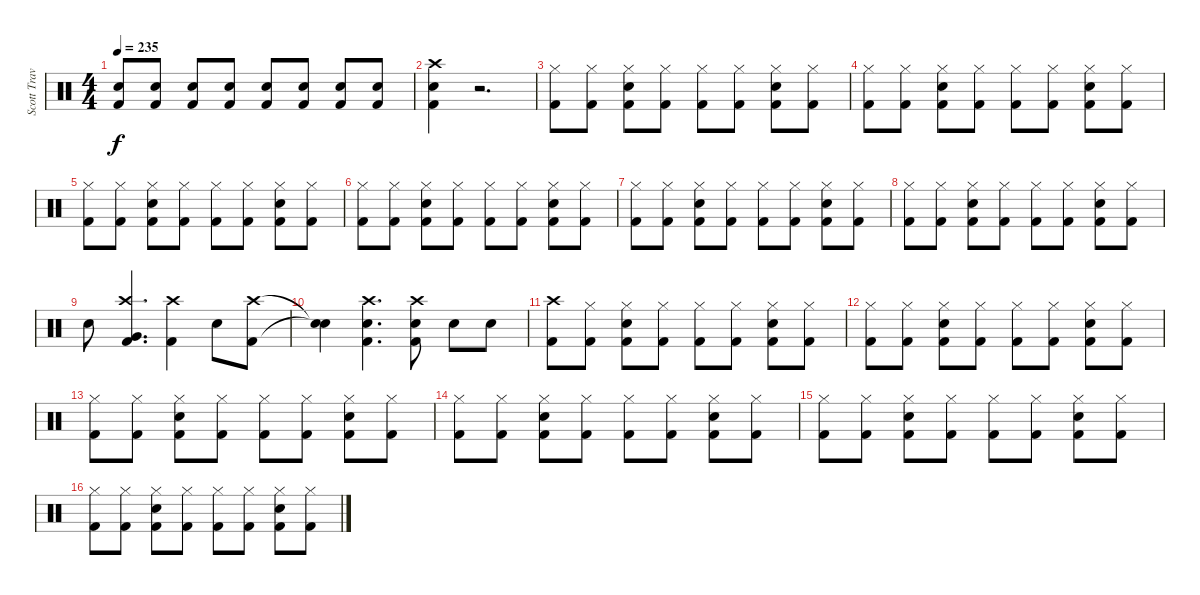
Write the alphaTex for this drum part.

\track ("Scott Travis" "Scott Trav") {instrument percussion}
\staff {score}
\articulation defaults
\ts (4 4)
\tempo 235
\clef neutral
\ks c
("Snare (hit) 2" "Kick (hit) 2").8{dy f} ("Snare (hit) 2" "Kick (hit) 2").8 ("Snare (hit) 2" "Kick (hit) 2").8 ("Snare (hit) 2" "Kick (hit) 2").8 ("Snare (hit) 2" "Kick (hit) 2").8 ("Snare (hit) 2" "Kick (hit) 2").8 ("Snare (hit) 2" "Kick (hit) 2").8 ("Snare (hit) 2" "Kick (hit) 2").8 |
("Kick (hit) 2" "Snare (hit) 2" "Crash high (hit)").4 r.2{d} |
("Kick (hit) 2" "Hi-Hat (closed)").8 ("Kick (hit) 2" "Hi-Hat (closed)").8 ("Kick (hit) 2" "Snare (hit) 2" "Hi-Hat (closed)").8 ("Kick (hit) 2" "Hi-Hat (closed)").8 ("Kick (hit) 2" "Hi-Hat (closed)").8 ("Kick (hit) 2" "Hi-Hat (closed)").8 ("Kick (hit) 2" "Hi-Hat (closed)" "Snare (hit) 2").8 ("Kick (hit) 2" "Hi-Hat (closed)").8 |
("Kick (hit) 2" "Hi-Hat (closed)").8 ("Kick (hit) 2" "Hi-Hat (closed)").8 ("Kick (hit) 2" "Snare (hit) 2" "Hi-Hat (closed)").8 ("Kick (hit) 2" "Hi-Hat (closed)").8 ("Kick (hit) 2" "Hi-Hat (closed)").8 ("Kick (hit) 2" "Hi-Hat (closed)").8 ("Kick (hit) 2" "Hi-Hat (closed)" "Snare (hit) 2").8 ("Kick (hit) 2" "Hi-Hat (closed)").8 |
("Kick (hit) 2" "Hi-Hat (closed)").8 ("Kick (hit) 2" "Hi-Hat (closed)").8 ("Kick (hit) 2" "Snare (hit) 2" "Hi-Hat (closed)").8 ("Kick (hit) 2" "Hi-Hat (closed)").8 ("Kick (hit) 2" "Hi-Hat (closed)").8 ("Kick (hit) 2" "Hi-Hat (closed)").8 ("Kick (hit) 2" "Hi-Hat (closed)" "Snare (hit) 2").8 ("Kick (hit) 2" "Hi-Hat (closed)").8 |
("Kick (hit) 2" "Hi-Hat (closed)").8 ("Kick (hit) 2" "Hi-Hat (closed)").8 ("Kick (hit) 2" "Snare (hit) 2" "Hi-Hat (closed)").8 ("Kick (hit) 2" "Hi-Hat (closed)").8 ("Kick (hit) 2" "Hi-Hat (closed)").8 ("Kick (hit) 2" "Hi-Hat (closed)").8 ("Kick (hit) 2" "Hi-Hat (closed)" "Snare (hit) 2").8 ("Kick (hit) 2" "Hi-Hat (closed)").8 |
("Kick (hit) 2" "Hi-Hat (closed)").8 ("Kick (hit) 2" "Hi-Hat (closed)").8 ("Kick (hit) 2" "Snare (hit) 2" "Hi-Hat (closed)").8 ("Kick (hit) 2" "Hi-Hat (closed)").8 ("Kick (hit) 2" "Hi-Hat (closed)").8 ("Kick (hit) 2" "Hi-Hat (closed)").8 ("Kick (hit) 2" "Hi-Hat (closed)" "Snare (hit) 2").8 ("Kick (hit) 2" "Hi-Hat (closed)").8 |
("Kick (hit) 2" "Hi-Hat (closed)").8 ("Kick (hit) 2" "Hi-Hat (closed)").8 ("Kick (hit) 2" "Snare (hit) 2" "Hi-Hat (closed)").8 ("Kick (hit) 2" "Hi-Hat (closed)").8 ("Kick (hit) 2" "Hi-Hat (closed)").8 ("Kick (hit) 2" "Hi-Hat (closed)").8 ("Kick (hit) 2" "Hi-Hat (closed)" "Snare (hit) 2").8 ("Kick (hit) 2" "Hi-Hat (closed)").8 |
"Snare (hit) 2".8 ("Kick (hit) 2" "Crash high (hit)" "Very Low Tom (hit)").4{d} ("Kick (hit) 2" "Crash high (hit)").4 "Snare (hit) 2".8 ("Kick (hit) 2" "Crash high (hit)").8 |
("Snare (hit)"{t} "Snare (hit)"{t}).4 ("Kick (hit) 2" "Crash high (hit)" "Snare (hit) 2").4{d} ("Kick (hit) 2" "Crash high (hit)" "Snare (hit) 2").8 "Snare (hit) 2".8 "Snare (hit) 2".8 |
("Kick (hit) 2" "Crash high (hit)").8 ("Kick (hit) 2" "Hi-Hat (closed)").8 ("Kick (hit) 2" "Snare (hit) 2" "Hi-Hat (closed)").8 ("Kick (hit) 2" "Hi-Hat (closed)").8 ("Kick (hit) 2" "Hi-Hat (closed)").8 ("Kick (hit) 2" "Hi-Hat (closed)").8 ("Kick (hit) 2" "Hi-Hat (closed)" "Snare (hit) 2").8 ("Kick (hit) 2" "Hi-Hat (closed)").8 |
("Kick (hit) 2" "Hi-Hat (closed)").8 ("Kick (hit) 2" "Hi-Hat (closed)").8 ("Kick (hit) 2" "Snare (hit) 2" "Hi-Hat (closed)").8 ("Kick (hit) 2" "Hi-Hat (closed)").8 ("Kick (hit) 2" "Hi-Hat (closed)").8 ("Kick (hit) 2" "Hi-Hat (closed)").8 ("Kick (hit) 2" "Hi-Hat (closed)" "Snare (hit) 2").8 ("Kick (hit) 2" "Hi-Hat (closed)").8 |
("Kick (hit) 2" "Hi-Hat (closed)").8 ("Kick (hit) 2" "Hi-Hat (closed)").8 ("Kick (hit) 2" "Snare (hit) 2" "Hi-Hat (closed)").8 ("Kick (hit) 2" "Hi-Hat (closed)").8 ("Kick (hit) 2" "Hi-Hat (closed)").8 ("Kick (hit) 2" "Hi-Hat (closed)").8 ("Kick (hit) 2" "Hi-Hat (closed)" "Snare (hit) 2").8 ("Kick (hit) 2" "Hi-Hat (closed)").8 |
("Kick (hit) 2" "Hi-Hat (closed)").8 ("Kick (hit) 2" "Hi-Hat (closed)").8 ("Kick (hit) 2" "Snare (hit) 2" "Hi-Hat (closed)").8 ("Kick (hit) 2" "Hi-Hat (closed)").8 ("Kick (hit) 2" "Hi-Hat (closed)").8 ("Kick (hit) 2" "Hi-Hat (closed)").8 ("Kick (hit) 2" "Hi-Hat (closed)" "Snare (hit) 2").8 ("Kick (hit) 2" "Hi-Hat (closed)").8 |
("Kick (hit) 2" "Hi-Hat (closed)").8 ("Kick (hit) 2" "Hi-Hat (closed)").8 ("Kick (hit) 2" "Snare (hit) 2" "Hi-Hat (closed)").8 ("Kick (hit) 2" "Hi-Hat (closed)").8 ("Kick (hit) 2" "Hi-Hat (closed)").8 ("Kick (hit) 2" "Hi-Hat (closed)").8 ("Kick (hit) 2" "Hi-Hat (closed)" "Snare (hit) 2").8 ("Kick (hit) 2" "Hi-Hat (closed)").8 |
("Kick (hit) 2" "Hi-Hat (closed)").8 ("Kick (hit) 2" "Hi-Hat (closed)").8 ("Kick (hit) 2" "Snare (hit) 2" "Hi-Hat (closed)").8 ("Kick (hit) 2" "Hi-Hat (closed)").8 ("Kick (hit) 2" "Hi-Hat (closed)").8 ("Kick (hit) 2" "Hi-Hat (closed)").8 ("Kick (hit) 2" "Hi-Hat (closed)" "Snare (hit) 2").8 ("Kick (hit) 2" "Hi-Hat (closed)").8
